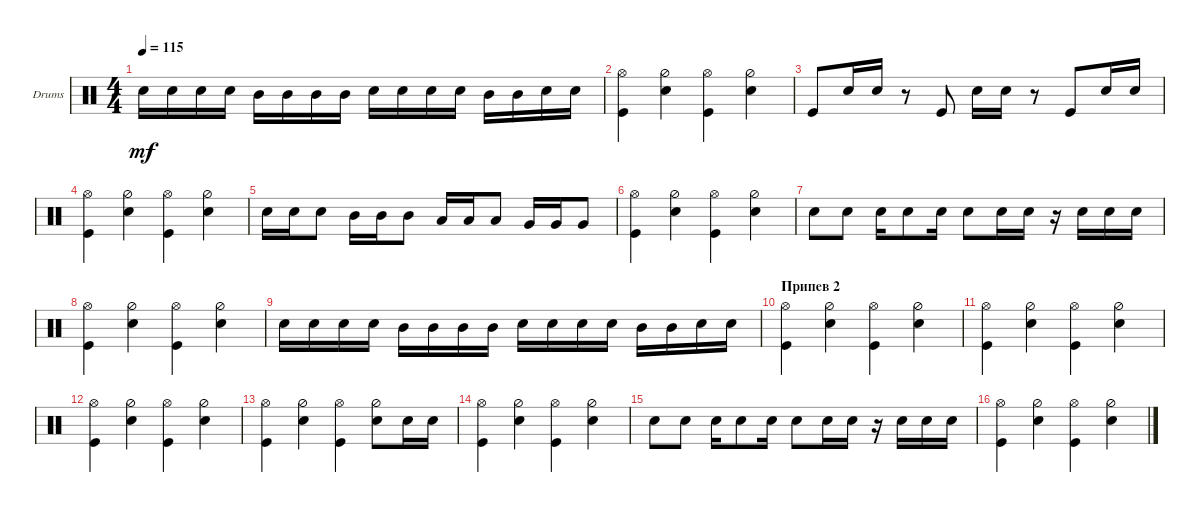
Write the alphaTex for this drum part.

\defaultSystemsLayout 4
\bracketExtendMode groupsimilarinstruments
\firstSystemTrackNameOrientation horizontal
\otherSystemsTrackNameOrientation horizontal
\track ("Ударные" "Drums") {instrument percussion}
\staff {score}
\articulation defaults
\ts (4 4)
\tempo 115
\clef neutral
\ks c "Snare (hit) 2".16{dy mf} "Snare (hit) 2".16 "Snare (hit) 2".16 "Snare (hit) 2".16 "Mid Tom (hit)".16 "Mid Tom (hit)".16 "Mid Tom (hit)".16 "Mid Tom (hit)".16 "Snare (hit) 2".16 "Snare (hit) 2".16 "Snare (hit) 2".16 "Snare (hit) 2".16 "Mid Tom (hit)".16 "Mid Tom (hit)".16 "Snare (hit) 2".16 "Snare (hit) 2".16
|
("Kick (hit)" "Hi-Hat (open)").4 ("Hi-Hat (half)" "Snare (hit) 2").4 ("Kick (hit)" "Hi-Hat (open)").4 ("Hi-Hat (half)" "Snare (hit) 2").4 |
"Kick (hit)".8 "Snare (hit) 2".16 "Snare (hit) 2".16 r.8 "Kick (hit)".8 "Snare (hit) 2".16 "Snare (hit) 2".16 r.8 "Kick (hit)".8 "Snare (hit) 2".16 "Snare (hit) 2".16 |
("Kick (hit)" "Hi-Hat (open)").4 ("Hi-Hat (half)" "Snare (hit) 2").4 ("Kick (hit)" "Hi-Hat (open)").4 ("Hi-Hat (half)" "Snare (hit) 2").4 |
"Snare (hit) 2".16 "Snare (hit) 2".16 "Snare (hit) 2".8 "Mid Tom (hit)".16 "Mid Tom (hit)".16 "Mid Tom (hit)".8 "Low Tom (hit)".16 "Low Tom (hit)".16 "Low Tom (hit)".8 "Very Low Tom (hit)".16 "Very Low Tom (hit)".16 "Very Low Tom (hit)".8 |
("Kick (hit)" "Hi-Hat (open)").4 ("Hi-Hat (half)" "Snare (hit) 2").4 ("Kick (hit)" "Hi-Hat (open)").4 ("Hi-Hat (half)" "Snare (hit) 2").4 |
"Snare (hit) 2".8 "Snare (hit) 2".8 "Snare (hit) 2".16 "Snare (hit) 2".8 "Snare (hit) 2".16 "Snare (hit) 2".8 "Snare (hit) 2".16 "Snare (hit) 2".16 r.16 "Snare (hit) 2".16 "Snare (hit) 2".16 "Snare (hit) 2".16 |
("Kick (hit)" "Hi-Hat (open)").4 ("Hi-Hat (half)" "Snare (hit) 2").4 ("Kick (hit)" "Hi-Hat (open)").4 ("Hi-Hat (half)" "Snare (hit) 2").4 |
"Snare (hit) 2".16 "Snare (hit) 2".16 "Snare (hit) 2".16 "Snare (hit) 2".16 "Mid Tom (hit)".16 "Mid Tom (hit)".16 "Mid Tom (hit)".16 "Mid Tom (hit)".16 "Snare (hit) 2".16 "Snare (hit) 2".16 "Snare (hit) 2".16 "Snare (hit) 2".16 "Mid Tom (hit)".16 "Mid Tom (hit)".16 "Snare (hit) 2".16 "Snare (hit) 2".16 |
\section ("" "Припев 2")
("Kick (hit)" "Hi-Hat (open)").4 ("Hi-Hat (half)" "Snare (hit) 2").4 ("Kick (hit)" "Hi-Hat (open)").4 ("Hi-Hat (half)" "Snare (hit) 2").4 |
("Kick (hit)" "Hi-Hat (open)").4 ("Hi-Hat (half)" "Snare (hit) 2").4 ("Kick (hit)" "Hi-Hat (open)").4 ("Hi-Hat (half)" "Snare (hit) 2").4 |
("Kick (hit)" "Hi-Hat (open)").4 ("Hi-Hat (half)" "Snare (hit) 2").4 ("Kick (hit)" "Hi-Hat (open)").4 ("Hi-Hat (half)" "Snare (hit) 2").4 |
("Kick (hit)" "Hi-Hat (open)").4 ("Hi-Hat (half)" "Snare (hit) 2").4 ("Kick (hit)" "Hi-Hat (open)").4 ("Hi-Hat (half)" "Snare (hit) 2").8 "Snare (hit) 2".16 "Snare (hit) 2".16 |
("Kick (hit)" "Hi-Hat (open)").4 ("Hi-Hat (half)" "Snare (hit) 2").4 ("Kick (hit)" "Hi-Hat (open)").4 ("Hi-Hat (half)" "Snare (hit) 2").4 |
"Snare (hit) 2".8 "Snare (hit) 2".8 "Snare (hit) 2".16 "Snare (hit) 2".8 "Snare (hit) 2".16 "Snare (hit) 2".8 "Snare (hit) 2".16 "Snare (hit) 2".16 r.16 "Snare (hit) 2".16 "Snare (hit) 2".16 "Snare (hit) 2".16 |
("Kick (hit)" "Hi-Hat (open)").4 ("Hi-Hat (half)" "Snare (hit) 2").4 ("Kick (hit)" "Hi-Hat (open)").4 ("Hi-Hat (half)" "Snare (hit) 2").4
